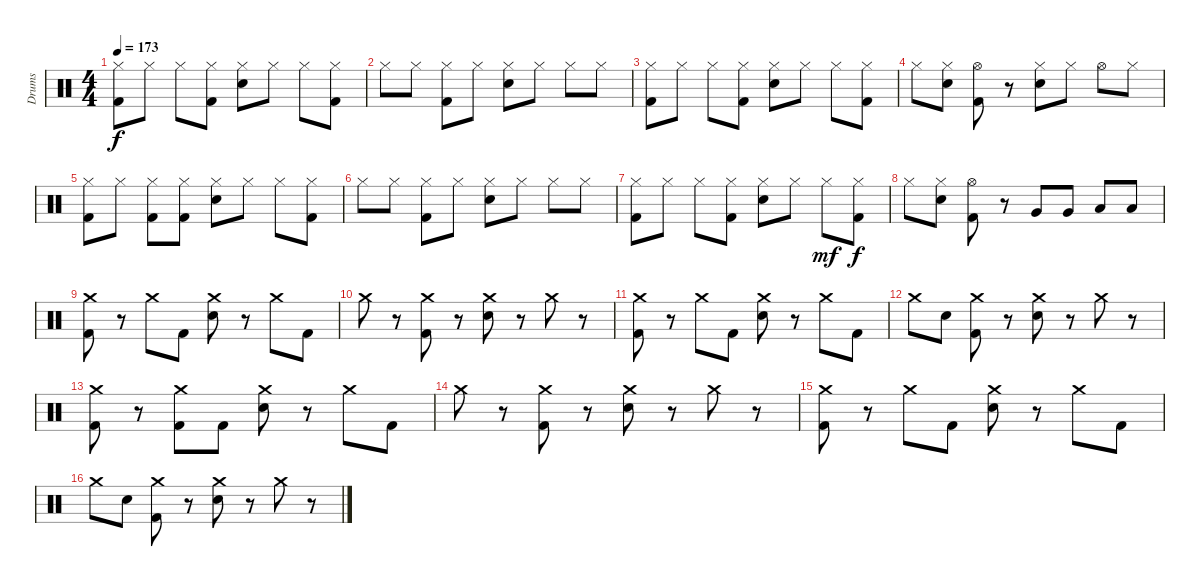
\track ("Drums" "Drums") {instrument percussion}
\staff {score}
\articulation defaults
\ts (4 4)
\tempo 173
\clef neutral
\ks c
("Hi-Hat (closed)" "Kick (hit) 2").8{dy f} "Hi-Hat (closed)".8 "Hi-Hat (closed)".8 ("Hi-Hat (closed)" "Kick (hit) 2").8 ("Hi-Hat (closed)" "Electric Snare (hit)").8 "Hi-Hat (closed)".8 "Hi-Hat (closed)".8 ("Hi-Hat (closed)" "Kick (hit) 2").8 |
"Hi-Hat (closed)".8 "Hi-Hat (closed)".8 ("Hi-Hat (closed)" "Kick (hit) 2").8 "Hi-Hat (closed)".8 ("Hi-Hat (closed)" "Electric Snare (hit)").8 "Hi-Hat (closed)".8 "Hi-Hat (closed)".8 "Hi-Hat (closed)".8 |
("Hi-Hat (closed)" "Kick (hit) 2").8 "Hi-Hat (closed)".8 "Hi-Hat (closed)".8 ("Hi-Hat (closed)" "Kick (hit) 2").8 ("Hi-Hat (closed)" "Electric Snare (hit)").8 "Hi-Hat (closed)".8 "Hi-Hat (closed)".8 ("Hi-Hat (closed)" "Kick (hit) 2").8 |
"Hi-Hat (closed)".8 ("Hi-Hat (closed)" "Electric Snare (hit)").8 ("Hi-Hat (open)" "Kick (hit) 2").8 r.8 ("Hi-Hat (closed)" "Electric Snare (hit)").8 "Hi-Hat (closed)".8 "Hi-Hat (open)".8 "Hi-Hat (closed)".8 |
("Hi-Hat (closed)" "Kick (hit) 2").8 "Hi-Hat (closed)".8 ("Hi-Hat (closed)" "Kick (hit) 2").8 ("Hi-Hat (closed)" "Kick (hit) 2").8 ("Hi-Hat (closed)" "Electric Snare (hit)").8 "Hi-Hat (closed)".8 "Hi-Hat (closed)".8 ("Hi-Hat (closed)" "Kick (hit) 2").8 |
"Hi-Hat (closed)".8 "Hi-Hat (closed)".8 ("Hi-Hat (closed)" "Kick (hit) 2").8 "Hi-Hat (closed)".8 ("Hi-Hat (closed)" "Electric Snare (hit)").8 "Hi-Hat (closed)".8 "Hi-Hat (closed)".8 "Hi-Hat (closed)".8 |
("Hi-Hat (closed)" "Kick (hit) 2").8 "Hi-Hat (closed)".8 "Hi-Hat (closed)".8 ("Hi-Hat (closed)" "Kick (hit) 2").8 ("Hi-Hat (closed)" "Electric Snare (hit)").8 "Hi-Hat (closed)".8 "Hi-Hat (closed)".8{dy mf} ("Hi-Hat (closed)" "Kick (hit) 2").8{dy f} |
"Hi-Hat (closed)".8 ("Hi-Hat (closed)" "Electric Snare (hit)").8 ("Hi-Hat (open)" "Kick (hit) 2").8 r.8 "Very Low Tom (hit)".8 "Very Low Tom (hit)".8 "Low Floor Tom (hit)".8 "Low Floor Tom (hit)".8 |
("Kick (hit) 2" "Crash medium (hit)").8 r.8 "Crash medium (hit)".8 "Kick (hit) 2".8 ("Electric Snare (hit)" "Crash medium (hit)").8 r.8 "Crash medium (hit)".8 "Kick (hit) 2".8 |
"Crash medium (hit)".8 r.8 ("Kick (hit) 2" "Crash medium (hit)").8 r.8 ("Electric Snare (hit)" "Crash medium (hit)").8 r.8 "Crash medium (hit)".8 r.8 |
("Kick (hit) 2" "Crash medium (hit)").8 r.8 "Crash medium (hit)".8 "Kick (hit) 2".8 ("Electric Snare (hit)" "Crash medium (hit)").8 r.8 "Crash medium (hit)".8 "Kick (hit) 2".8 |
"Crash medium (hit)".8 "Electric Snare (hit)".8 ("Kick (hit) 2" "Crash medium (hit)").8 r.8 ("Electric Snare (hit)" "Crash medium (hit)").8 r.8 "Crash medium (hit)".8 r.8 |
("Kick (hit) 2" "Crash medium (hit)").8 r.8 ("Kick (hit) 2" "Crash medium (hit)").8 "Kick (hit) 2".8 ("Electric Snare (hit)" "Crash medium (hit)").8 r.8 "Crash medium (hit)".8 "Kick (hit) 2".8 |
"Crash medium (hit)".8 r.8 ("Kick (hit) 2" "Crash medium (hit)").8 r.8 ("Electric Snare (hit)" "Crash medium (hit)").8 r.8 "Crash medium (hit)".8 r.8 |
("Kick (hit) 2" "Crash medium (hit)").8 r.8 "Crash medium (hit)".8 "Kick (hit) 2".8 ("Electric Snare (hit)" "Crash medium (hit)").8 r.8 "Crash medium (hit)".8 "Kick (hit) 2".8 |
"Crash medium (hit)".8 "Electric Snare (hit)".8 ("Kick (hit) 2" "Crash medium (hit)").8 r.8 ("Electric Snare (hit)" "Crash medium (hit)").8 r.8 "Crash medium (hit)".8 r.8
